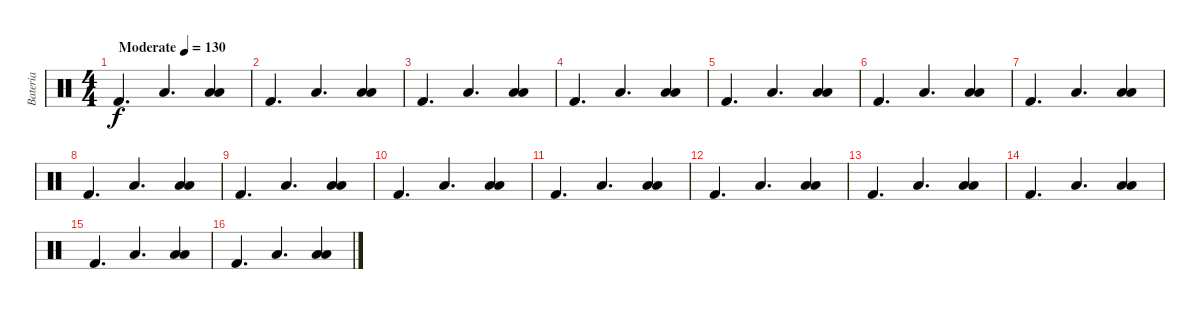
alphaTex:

\track ("Bateria" "Bateria") {instrument percussion}
\staff {score}
\articulation defaults
\ts (4 4)
\tempo (130 "Moderate")
\clef neutral
\ks c "Kick (hit) 2".4{d dy f} "Low Tom (hit)".4{d}
("Low Tom (hit)" "Low Tom (hit)").4 |
"Kick (hit) 2".4{d} "Low Tom (hit)".4{d} ("Low Tom (hit)" "Low Tom (hit)").4 |
"Kick (hit) 2".4{d} "Low Tom (hit)".4{d} ("Low Tom (hit)" "Low Tom (hit)").4 |
"Kick (hit) 2".4{d} "Low Tom (hit)".4{d} ("Low Tom (hit)" "Low Tom (hit)").4 |
"Kick (hit) 2".4{d} "Low Tom (hit)".4{d} ("Low Tom (hit)" "Low Tom (hit)").4 |
"Kick (hit) 2".4{d} "Low Tom (hit)".4{d} ("Low Tom (hit)" "Low Tom (hit)").4 |
"Kick (hit) 2".4{d} "Low Tom (hit)".4{d} ("Low Tom (hit)" "Low Tom (hit)").4 |
"Kick (hit) 2".4{d} "Low Tom (hit)".4{d} ("Low Tom (hit)" "Low Tom (hit)").4 |
"Kick (hit) 2".4{d} "Low Tom (hit)".4{d} ("Low Tom (hit)" "Low Tom (hit)").4 |
"Kick (hit) 2".4{d} "Low Tom (hit)".4{d} ("Low Tom (hit)" "Low Tom (hit)").4 |
"Kick (hit) 2".4{d} "Low Tom (hit)".4{d} ("Low Tom (hit)" "Low Tom (hit)").4 |
"Kick (hit) 2".4{d} "Low Tom (hit)".4{d} ("Low Tom (hit)" "Low Tom (hit)").4 |
"Kick (hit) 2".4{d} "Low Tom (hit)".4{d} ("Low Tom (hit)" "Low Tom (hit)").4 |
"Kick (hit) 2".4{d} "Low Tom (hit)".4{d} ("Low Tom (hit)" "Low Tom (hit)").4 |
"Kick (hit) 2".4{d} "Low Tom (hit)".4{d} ("Low Tom (hit)" "Low Tom (hit)").4 |
"Kick (hit) 2".4{d} "Low Tom (hit)".4{d} ("Low Tom (hit)" "Low Tom (hit)").4
